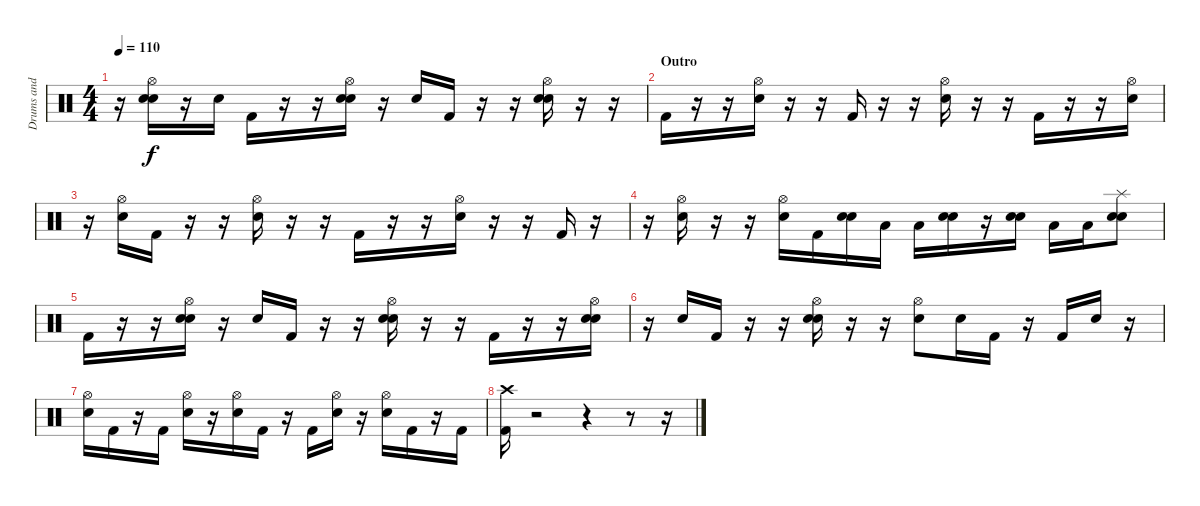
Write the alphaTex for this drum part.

\track ("Drums and Claps" "Drums and ") {instrument percussion}
\staff {score}
\articulation defaults
\ts (4 4)
\tempo 110
\clef neutral
\ks c
r.16{dy f} ("Hi-Hat (open)" "Hand Clap (hit)" "Snare (hit) 2").16 r.16 "Snare (hit) 2".16 "Kick (hit) 2".16 r.16 r.16 ("Hi-Hat (open)" "Hand Clap (hit)" "Snare (hit) 2").16 r.16 "Hand Clap (hit)".16 "Kick (hit) 2".16 r.16 r.16 ("Hi-Hat (open)" "Hand Clap (hit)" "Snare (hit) 2").16 r.16 r.16 |
\section ("" "Outro")
"Kick (hit) 2".16 r.16 r.16 ("Hi-Hat (open)" "Snare (hit) 2").16 r.16 r.16 "Kick (hit) 2".16 r.16 r.16 ("Hi-Hat (open)" "Snare (hit) 2").16 r.16 r.16 "Kick (hit) 2".16 r.16 r.16 ("Hi-Hat (open)" "Snare (hit) 2").16 |
r.16 ("Hi-Hat (open)" "Snare (hit) 2").16 "Kick (hit) 2".16 r.16 r.16 ("Hi-Hat (open)" "Snare (hit) 2").16 r.16 r.16 "Kick (hit) 2".16 r.16 r.16 ("Hi-Hat (open)" "Snare (hit) 2").16 r.16 r.16 "Kick (hit) 2".16 r.16 |
r.16 ("Hi-Hat (open)" "Snare (hit) 2").16 r.16 r.16 ("Hi-Hat (open)" "Snare (hit) 2").16 "Kick (hit) 2".16 ("Electric Snare (hit)" "Snare (hit) 2").16 "Low Tom (hit)".16 "Low Tom (hit)".16 ("Electric Snare (hit)" "Snare (hit) 2").16 r.16 ("Electric Snare (hit)" "Snare (hit) 2").16 "Low Tom (hit)".16 "Low Tom (hit)".16 ("Electric Snare (hit)" "Snare (hit) 2" "Splash (hit)").8 |
"Kick (hit) 2".16 r.16 r.16 ("Hi-Hat (open)" "Hand Clap (hit)" "Snare (hit) 2").16 r.16 "Hand Clap (hit)".16 "Kick (hit) 2".16 r.16 r.16 ("Hi-Hat (open)" "Hand Clap (hit)" "Snare (hit) 2").16 r.16 r.16 "Kick (hit) 2".16 r.16 r.16 ("Hi-Hat (open)" "Hand Clap (hit)" "Snare (hit) 2").16 |
r.16 "Hand Clap (hit)".16 "Kick (hit) 2".16 r.16 r.16 ("Hi-Hat (open)" "Hand Clap (hit)" "Snare (hit) 2").16 r.16 r.16 ("Hi-Hat (open)" "Snare (hit) 2").8 "Snare (hit) 2".16 "Kick (hit) 2".16 r.16 "Kick (hit) 2".16 "Snare (hit) 2".16 r.16 |
("Hi-Hat (open)" "Snare (hit) 2").16 "Kick (hit) 2".16 r.16 "Kick (hit) 2".16 ("Hi-Hat (open)" "Snare (hit) 2").16 r.16 ("Hi-Hat (open)" "Snare (hit) 2").16 "Kick (hit) 2".16 r.16 "Kick (hit) 2".16 ("Hi-Hat (open)" "Snare (hit) 2").16 r.16 ("Hi-Hat (open)" "Snare (hit) 2").16 "Kick (hit) 2".16 r.16 "Kick (hit) 2".16 |
("Crash high (hit)" "Kick (hit) 2").16 r.2 r.4 r.8 r.16
